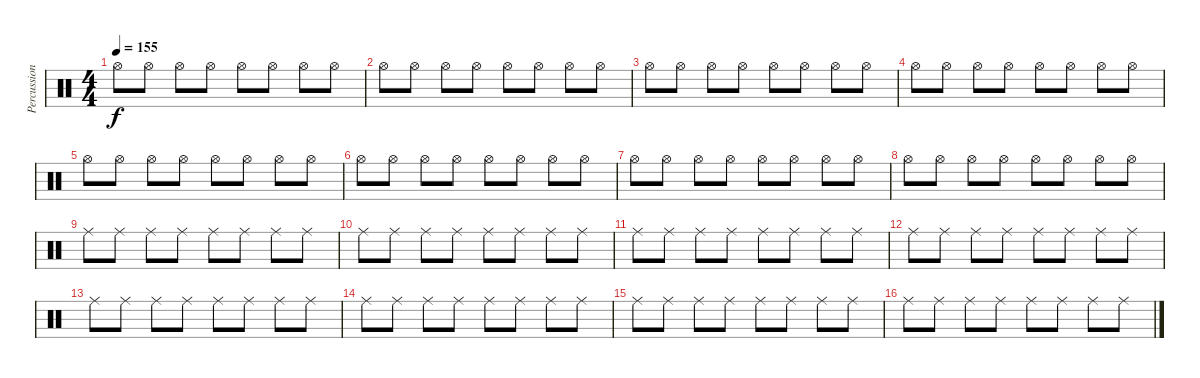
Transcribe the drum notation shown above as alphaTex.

\track ("Percussion 2" "Percussion") {instrument percussion}
\staff {score}
\articulation defaults
\ts (4 4)
\tempo 155
\clef neutral
\ks c "Hi-Hat (open)".8{dy f} "Hi-Hat (open)".8 "Hi-Hat (open)".8 "Hi-Hat (open)".8 "Hi-Hat (open)".8 "Hi-Hat (open)".8 "Hi-Hat (open)".8 "Hi-Hat (open)".8
|
"Hi-Hat (open)".8 "Hi-Hat (open)".8 "Hi-Hat (open)".8 "Hi-Hat (open)".8 "Hi-Hat (open)".8 "Hi-Hat (open)".8 "Hi-Hat (open)".8 "Hi-Hat (open)".8 |
"Hi-Hat (open)".8 "Hi-Hat (open)".8 "Hi-Hat (open)".8 "Hi-Hat (open)".8 "Hi-Hat (open)".8 "Hi-Hat (open)".8 "Hi-Hat (open)".8 "Hi-Hat (open)".8 |
"Hi-Hat (open)".8 "Hi-Hat (open)".8 "Hi-Hat (open)".8 "Hi-Hat (open)".8 "Hi-Hat (open)".8 "Hi-Hat (open)".8 "Hi-Hat (open)".8 "Hi-Hat (open)".8 |
"Hi-Hat (open)".8 "Hi-Hat (open)".8 "Hi-Hat (open)".8 "Hi-Hat (open)".8 "Hi-Hat (open)".8 "Hi-Hat (open)".8 "Hi-Hat (open)".8 "Hi-Hat (open)".8 |
"Hi-Hat (open)".8 "Hi-Hat (open)".8 "Hi-Hat (open)".8 "Hi-Hat (open)".8 "Hi-Hat (open)".8 "Hi-Hat (open)".8 "Hi-Hat (open)".8 "Hi-Hat (open)".8 |
"Hi-Hat (open)".8 "Hi-Hat (open)".8 "Hi-Hat (open)".8 "Hi-Hat (open)".8 "Hi-Hat (open)".8 "Hi-Hat (open)".8 "Hi-Hat (open)".8 "Hi-Hat (open)".8 |
"Hi-Hat (open)".8 "Hi-Hat (open)".8 "Hi-Hat (open)".8 "Hi-Hat (open)".8 "Hi-Hat (open)".8 "Hi-Hat (open)".8 "Hi-Hat (open)".8 "Hi-Hat (open)".8 |
"Ride (middle)".8 "Ride (middle)".8 "Ride (middle)".8 "Ride (middle)".8 "Ride (middle)".8 "Ride (middle)".8 "Ride (middle)".8 "Ride (middle)".8 |
"Ride (middle)".8 "Ride (middle)".8 "Ride (middle)".8 "Ride (middle)".8 "Ride (middle)".8 "Ride (middle)".8 "Ride (middle)".8 "Ride (middle)".8 |
"Ride (middle)".8 "Ride (middle)".8 "Ride (middle)".8 "Ride (middle)".8 "Ride (middle)".8 "Ride (middle)".8 "Ride (middle)".8 "Ride (middle)".8 |
"Ride (middle)".8 "Ride (middle)".8 "Ride (middle)".8 "Ride (middle)".8 "Ride (middle)".8 "Ride (middle)".8 "Ride (middle)".8 "Ride (middle)".8 |
"Ride (middle)".8 "Ride (middle)".8 "Ride (middle)".8 "Ride (middle)".8 "Ride (middle)".8 "Ride (middle)".8 "Ride (middle)".8 "Ride (middle)".8 |
"Ride (middle)".8 "Ride (middle)".8 "Ride (middle)".8 "Ride (middle)".8 "Ride (middle)".8 "Ride (middle)".8 "Ride (middle)".8 "Ride (middle)".8 |
"Ride (middle)".8 "Ride (middle)".8 "Ride (middle)".8 "Ride (middle)".8 "Ride (middle)".8 "Ride (middle)".8 "Ride (middle)".8 "Ride (middle)".8 |
"Ride (middle)".8 "Ride (middle)".8 "Ride (middle)".8 "Ride (middle)".8 "Ride (middle)".8 "Ride (middle)".8 "Ride (middle)".8 "Ride (middle)".8
